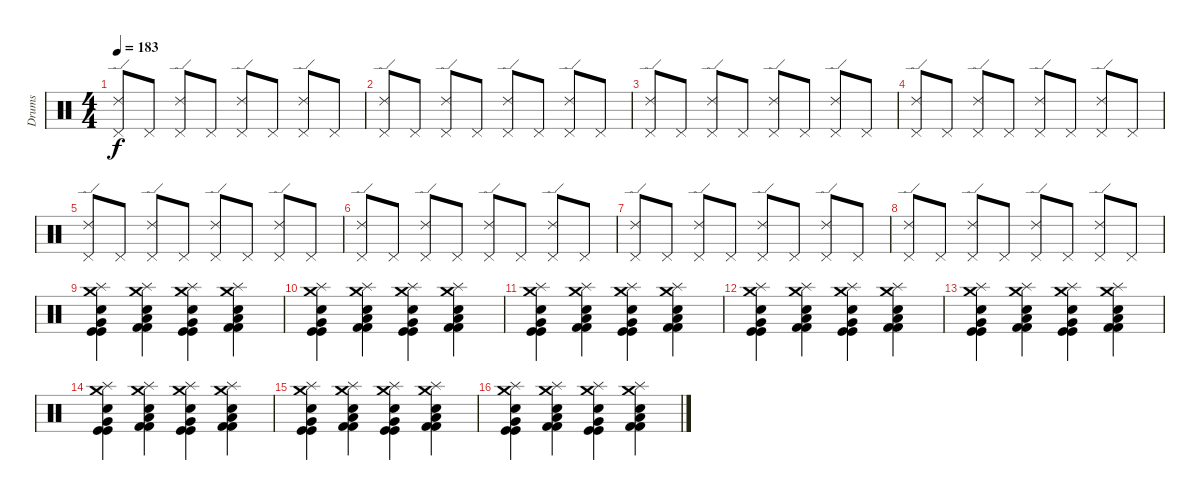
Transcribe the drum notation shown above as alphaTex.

\track ("Drums" "Drums") {instrument percussion}
\staff {score}
\articulation defaults
\ts (4 4)
\tempo 183
\clef neutral
\ks c
("Pedal Hi-Hat (hit)" "Ride (edge) 2").8{dy f} "Pedal Hi-Hat (hit)".8 ("Pedal Hi-Hat (hit)" "Ride (edge) 2").8 "Pedal Hi-Hat (hit)".8 ("Pedal Hi-Hat (hit)" "Ride (edge) 2").8 "Pedal Hi-Hat (hit)".8 ("Pedal Hi-Hat (hit)" "Ride (edge) 2").8 "Pedal Hi-Hat (hit)".8 |
("Pedal Hi-Hat (hit)" "Ride (edge) 2").8 "Pedal Hi-Hat (hit)".8 ("Pedal Hi-Hat (hit)" "Ride (edge) 2").8 "Pedal Hi-Hat (hit)".8 ("Pedal Hi-Hat (hit)" "Ride (edge) 2").8 "Pedal Hi-Hat (hit)".8 ("Pedal Hi-Hat (hit)" "Ride (edge) 2").8 "Pedal Hi-Hat (hit)".8 |
("Pedal Hi-Hat (hit)" "Ride (edge) 2").8 "Pedal Hi-Hat (hit)".8 ("Pedal Hi-Hat (hit)" "Ride (edge) 2").8 "Pedal Hi-Hat (hit)".8 ("Pedal Hi-Hat (hit)" "Ride (edge) 2").8 "Pedal Hi-Hat (hit)".8 ("Pedal Hi-Hat (hit)" "Ride (edge) 2").8 "Pedal Hi-Hat (hit)".8 |
("Pedal Hi-Hat (hit)" "Ride (edge) 2").8 "Pedal Hi-Hat (hit)".8 ("Pedal Hi-Hat (hit)" "Ride (edge) 2").8 "Pedal Hi-Hat (hit)".8 ("Pedal Hi-Hat (hit)" "Ride (edge) 2").8 "Pedal Hi-Hat (hit)".8 ("Pedal Hi-Hat (hit)" "Ride (edge) 2").8 "Pedal Hi-Hat (hit)".8 |
("Pedal Hi-Hat (hit)" "Ride (edge) 2").8 "Pedal Hi-Hat (hit)".8 ("Pedal Hi-Hat (hit)" "Ride (edge) 2").8 "Pedal Hi-Hat (hit)".8 ("Pedal Hi-Hat (hit)" "Ride (edge) 2").8 "Pedal Hi-Hat (hit)".8 ("Pedal Hi-Hat (hit)" "Ride (edge) 2").8 "Pedal Hi-Hat (hit)".8 |
("Pedal Hi-Hat (hit)" "Ride (edge) 2").8 "Pedal Hi-Hat (hit)".8 ("Pedal Hi-Hat (hit)" "Ride (edge) 2").8 "Pedal Hi-Hat (hit)".8 ("Pedal Hi-Hat (hit)" "Ride (edge) 2").8 "Pedal Hi-Hat (hit)".8 ("Pedal Hi-Hat (hit)" "Ride (edge) 2").8 "Pedal Hi-Hat (hit)".8 |
("Pedal Hi-Hat (hit)" "Ride (edge) 2").8 "Pedal Hi-Hat (hit)".8 ("Pedal Hi-Hat (hit)" "Ride (edge) 2").8 "Pedal Hi-Hat (hit)".8 ("Pedal Hi-Hat (hit)" "Ride (edge) 2").8 "Pedal Hi-Hat (hit)".8 ("Pedal Hi-Hat (hit)" "Ride (edge) 2").8 "Pedal Hi-Hat (hit)".8 |
("Pedal Hi-Hat (hit)" "Ride (edge) 2").8 "Pedal Hi-Hat (hit)".8 ("Pedal Hi-Hat (hit)" "Ride (edge) 2").8 "Pedal Hi-Hat (hit)".8 ("Pedal Hi-Hat (hit)" "Ride (edge) 2").8 "Pedal Hi-Hat (hit)".8 ("Pedal Hi-Hat (hit)" "Ride (edge) 2").8 "Pedal Hi-Hat (hit)".8 |
("Crash medium (hit)" "Kick (hit)" "Kick (hit)" "Electric Snare (hit)" "Very Low Tom (hit)" "Splash (hit)").4 ("Crash medium (hit)" "Kick (hit) 2" "Kick (hit) 2" "Electric Snare (hit)" "Low Tom (hit)" "Splash (hit)").4 ("Crash medium (hit)" "Kick (hit)" "Kick (hit)" "Electric Snare (hit)" "Very Low Tom (hit)" "Splash (hit)").4 ("Crash medium (hit)" "Kick (hit) 2" "Kick (hit) 2" "Electric Snare (hit)" "Low Tom (hit)" "Splash (hit)").4 |
("Crash medium (hit)" "Kick (hit)" "Kick (hit)" "Electric Snare (hit)" "Very Low Tom (hit)" "Splash (hit)").4 ("Crash medium (hit)" "Kick (hit) 2" "Kick (hit) 2" "Electric Snare (hit)" "Low Tom (hit)" "Splash (hit)").4 ("Crash medium (hit)" "Kick (hit)" "Kick (hit)" "Electric Snare (hit)" "Very Low Tom (hit)" "Splash (hit)").4 ("Crash medium (hit)" "Kick (hit) 2" "Kick (hit) 2" "Electric Snare (hit)" "Low Tom (hit)" "Splash (hit)").4 |
("Crash medium (hit)" "Kick (hit)" "Kick (hit)" "Electric Snare (hit)" "Very Low Tom (hit)" "Splash (hit)").4 ("Crash medium (hit)" "Kick (hit) 2" "Kick (hit) 2" "Electric Snare (hit)" "Low Tom (hit)" "Splash (hit)").4 ("Crash medium (hit)" "Kick (hit)" "Kick (hit)" "Electric Snare (hit)" "Very Low Tom (hit)" "Splash (hit)").4 ("Crash medium (hit)" "Kick (hit) 2" "Kick (hit) 2" "Electric Snare (hit)" "Low Tom (hit)" "Splash (hit)").4 |
("Crash medium (hit)" "Kick (hit)" "Kick (hit)" "Electric Snare (hit)" "Very Low Tom (hit)" "Splash (hit)").4 ("Crash medium (hit)" "Kick (hit) 2" "Kick (hit) 2" "Electric Snare (hit)" "Low Tom (hit)" "Splash (hit)").4 ("Crash medium (hit)" "Kick (hit)" "Kick (hit)" "Electric Snare (hit)" "Very Low Tom (hit)" "Splash (hit)").4 ("Crash medium (hit)" "Kick (hit) 2" "Kick (hit) 2" "Electric Snare (hit)" "Low Tom (hit)" "Splash (hit)").4 |
("Crash medium (hit)" "Kick (hit)" "Kick (hit)" "Electric Snare (hit)" "Very Low Tom (hit)" "Splash (hit)").4 ("Crash medium (hit)" "Kick (hit) 2" "Kick (hit) 2" "Electric Snare (hit)" "Low Tom (hit)" "Splash (hit)").4 ("Crash medium (hit)" "Kick (hit)" "Kick (hit)" "Electric Snare (hit)" "Very Low Tom (hit)" "Splash (hit)").4 ("Crash medium (hit)" "Kick (hit) 2" "Kick (hit) 2" "Electric Snare (hit)" "Low Tom (hit)" "Splash (hit)").4 |
("Crash medium (hit)" "Kick (hit)" "Kick (hit)" "Electric Snare (hit)" "Very Low Tom (hit)" "Splash (hit)").4 ("Crash medium (hit)" "Kick (hit) 2" "Kick (hit) 2" "Electric Snare (hit)" "Low Tom (hit)" "Splash (hit)").4 ("Crash medium (hit)" "Kick (hit)" "Kick (hit)" "Electric Snare (hit)" "Very Low Tom (hit)" "Splash (hit)").4 ("Crash medium (hit)" "Kick (hit) 2" "Kick (hit) 2" "Electric Snare (hit)" "Low Tom (hit)" "Splash (hit)").4 |
("Crash medium (hit)" "Kick (hit)" "Kick (hit)" "Electric Snare (hit)" "Very Low Tom (hit)" "Splash (hit)").4 ("Crash medium (hit)" "Kick (hit) 2" "Kick (hit) 2" "Electric Snare (hit)" "Low Tom (hit)" "Splash (hit)").4 ("Crash medium (hit)" "Kick (hit)" "Kick (hit)" "Electric Snare (hit)" "Very Low Tom (hit)" "Splash (hit)").4 ("Crash medium (hit)" "Kick (hit) 2" "Kick (hit) 2" "Electric Snare (hit)" "Low Tom (hit)" "Splash (hit)").4 |
("Crash medium (hit)" "Kick (hit)" "Kick (hit)" "Electric Snare (hit)" "Very Low Tom (hit)" "Splash (hit)").4 ("Crash medium (hit)" "Kick (hit) 2" "Kick (hit) 2" "Electric Snare (hit)" "Low Tom (hit)" "Splash (hit)").4 ("Crash medium (hit)" "Kick (hit)" "Kick (hit)" "Electric Snare (hit)" "Very Low Tom (hit)" "Splash (hit)").4 ("Crash medium (hit)" "Kick (hit) 2" "Kick (hit) 2" "Electric Snare (hit)" "Low Tom (hit)" "Splash (hit)").4
